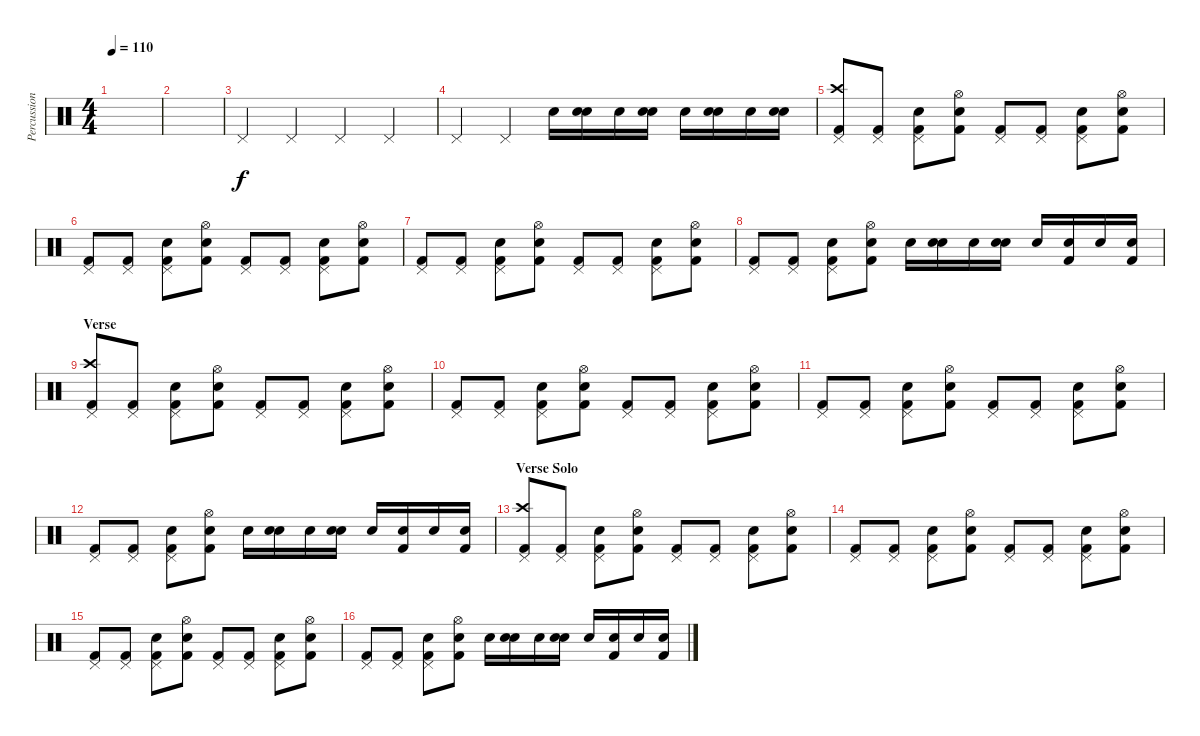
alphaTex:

\track ("Percussion" "Percussion") {instrument percussion}
\staff {score}
\articulation defaults
\ts (4 4)
\tempo 110
\clef neutral
\ks c
|
|
"Pedal Hi-Hat (hit)".4 "Pedal Hi-Hat (hit)".4 "Pedal Hi-Hat (hit)".4 "Pedal Hi-Hat (hit)".4 |
"Pedal Hi-Hat (hit)".4 "Pedal Hi-Hat (hit)".4 "Snare (hit) 2".16 ("Electric Snare (hit)" "Snare (hit) 2").16 "Snare (hit) 2".16 ("Electric Snare (hit)" "Snare (hit) 2").16 "Snare (hit) 2".16 ("Electric Snare (hit)" "Snare (hit) 2").16 "Snare (hit) 2".16 ("Electric Snare (hit)" "Snare (hit) 2").16 |
("Pedal Hi-Hat (hit)" "Crash high (hit)" "Kick (hit) 2").8 ("Pedal Hi-Hat (hit)" "Kick (hit) 2").8 ("Pedal Hi-Hat (hit)" "Snare (hit) 2" "Kick (hit) 2").8 ("Hi-Hat (open)" "Snare (hit) 2" "Kick (hit) 2").8 ("Pedal Hi-Hat (hit)" "Kick (hit) 2").8 ("Pedal Hi-Hat (hit)" "Kick (hit) 2").8 ("Pedal Hi-Hat (hit)" "Snare (hit) 2" "Kick (hit) 2").8 ("Hi-Hat (open)" "Snare (hit) 2" "Kick (hit) 2").8 |
("Pedal Hi-Hat (hit)" "Kick (hit) 2").8 ("Pedal Hi-Hat (hit)" "Kick (hit) 2").8 ("Pedal Hi-Hat (hit)" "Snare (hit) 2" "Kick (hit) 2").8 ("Hi-Hat (open)" "Snare (hit) 2" "Kick (hit) 2").8 ("Pedal Hi-Hat (hit)" "Kick (hit) 2").8 ("Pedal Hi-Hat (hit)" "Kick (hit) 2").8 ("Pedal Hi-Hat (hit)" "Snare (hit) 2" "Kick (hit) 2").8 ("Hi-Hat (open)" "Snare (hit) 2" "Kick (hit) 2").8 |
("Pedal Hi-Hat (hit)" "Kick (hit) 2").8 ("Pedal Hi-Hat (hit)" "Kick (hit) 2").8 ("Pedal Hi-Hat (hit)" "Snare (hit) 2" "Kick (hit) 2").8 ("Hi-Hat (open)" "Snare (hit) 2" "Kick (hit) 2").8 ("Pedal Hi-Hat (hit)" "Kick (hit) 2").8 ("Pedal Hi-Hat (hit)" "Kick (hit) 2").8 ("Pedal Hi-Hat (hit)" "Snare (hit) 2" "Kick (hit) 2").8 ("Hi-Hat (open)" "Snare (hit) 2" "Kick (hit) 2").8 |
("Pedal Hi-Hat (hit)" "Kick (hit) 2").8 ("Pedal Hi-Hat (hit)" "Kick (hit) 2").8 ("Pedal Hi-Hat (hit)" "Snare (hit) 2" "Kick (hit) 2").8 ("Hi-Hat (open)" "Snare (hit) 2" "Kick (hit) 2").8 "Snare (hit) 2".16 ("Electric Snare (hit)" "Snare (hit) 2").16 "Snare (hit) 2".16 ("Electric Snare (hit)" "Snare (hit) 2").16 "Snare (hit) 2".16 ("Kick (hit) 2" "Snare (hit) 2").16 "Snare (hit) 2".16 ("Kick (hit) 2" "Snare (hit) 2").16 |
\section ("" "Verse")
("Pedal Hi-Hat (hit)" "Crash high (hit)" "Kick (hit) 2").8 ("Pedal Hi-Hat (hit)" "Kick (hit) 2").8 ("Pedal Hi-Hat (hit)" "Snare (hit) 2" "Kick (hit) 2").8 ("Hi-Hat (open)" "Snare (hit) 2" "Kick (hit) 2").8 ("Pedal Hi-Hat (hit)" "Kick (hit) 2").8 ("Pedal Hi-Hat (hit)" "Kick (hit) 2").8 ("Pedal Hi-Hat (hit)" "Snare (hit) 2" "Kick (hit) 2").8 ("Hi-Hat (open)" "Snare (hit) 2" "Kick (hit) 2").8 |
("Pedal Hi-Hat (hit)" "Kick (hit) 2").8 ("Pedal Hi-Hat (hit)" "Kick (hit) 2").8 ("Pedal Hi-Hat (hit)" "Snare (hit) 2" "Kick (hit) 2").8 ("Hi-Hat (open)" "Snare (hit) 2" "Kick (hit) 2").8 ("Pedal Hi-Hat (hit)" "Kick (hit) 2").8 ("Pedal Hi-Hat (hit)" "Kick (hit) 2").8 ("Pedal Hi-Hat (hit)" "Snare (hit) 2" "Kick (hit) 2").8 ("Hi-Hat (open)" "Snare (hit) 2" "Kick (hit) 2").8 |
("Pedal Hi-Hat (hit)" "Kick (hit) 2").8 ("Pedal Hi-Hat (hit)" "Kick (hit) 2").8 ("Pedal Hi-Hat (hit)" "Snare (hit) 2" "Kick (hit) 2").8 ("Hi-Hat (open)" "Snare (hit) 2" "Kick (hit) 2").8 ("Pedal Hi-Hat (hit)" "Kick (hit) 2").8 ("Pedal Hi-Hat (hit)" "Kick (hit) 2").8 ("Pedal Hi-Hat (hit)" "Snare (hit) 2" "Kick (hit) 2").8 ("Hi-Hat (open)" "Snare (hit) 2" "Kick (hit) 2").8 |
("Pedal Hi-Hat (hit)" "Kick (hit) 2").8 ("Pedal Hi-Hat (hit)" "Kick (hit) 2").8 ("Pedal Hi-Hat (hit)" "Snare (hit) 2" "Kick (hit) 2").8 ("Hi-Hat (open)" "Snare (hit) 2" "Kick (hit) 2").8 "Snare (hit) 2".16 ("Electric Snare (hit)" "Snare (hit) 2").16 "Snare (hit) 2".16 ("Electric Snare (hit)" "Snare (hit) 2").16 "Snare (hit) 2".16 ("Kick (hit) 2" "Snare (hit) 2").16 "Snare (hit) 2".16 ("Kick (hit) 2" "Snare (hit) 2").16 |
\section ("" "Verse Solo")
("Pedal Hi-Hat (hit)" "Crash high (hit)" "Kick (hit) 2").8 ("Pedal Hi-Hat (hit)" "Kick (hit) 2").8 ("Pedal Hi-Hat (hit)" "Snare (hit) 2" "Kick (hit) 2").8 ("Hi-Hat (open)" "Snare (hit) 2" "Kick (hit) 2").8 ("Pedal Hi-Hat (hit)" "Kick (hit) 2").8 ("Pedal Hi-Hat (hit)" "Kick (hit) 2").8 ("Pedal Hi-Hat (hit)" "Snare (hit) 2" "Kick (hit) 2").8 ("Hi-Hat (open)" "Snare (hit) 2" "Kick (hit) 2").8 |
("Pedal Hi-Hat (hit)" "Kick (hit) 2").8 ("Pedal Hi-Hat (hit)" "Kick (hit) 2").8 ("Pedal Hi-Hat (hit)" "Snare (hit) 2" "Kick (hit) 2").8 ("Hi-Hat (open)" "Snare (hit) 2" "Kick (hit) 2").8 ("Pedal Hi-Hat (hit)" "Kick (hit) 2").8 ("Pedal Hi-Hat (hit)" "Kick (hit) 2").8 ("Pedal Hi-Hat (hit)" "Snare (hit) 2" "Kick (hit) 2").8 ("Hi-Hat (open)" "Snare (hit) 2" "Kick (hit) 2").8 |
("Pedal Hi-Hat (hit)" "Kick (hit) 2").8 ("Pedal Hi-Hat (hit)" "Kick (hit) 2").8 ("Pedal Hi-Hat (hit)" "Snare (hit) 2" "Kick (hit) 2").8 ("Hi-Hat (open)" "Snare (hit) 2" "Kick (hit) 2").8 ("Pedal Hi-Hat (hit)" "Kick (hit) 2").8 ("Pedal Hi-Hat (hit)" "Kick (hit) 2").8 ("Pedal Hi-Hat (hit)" "Snare (hit) 2" "Kick (hit) 2").8 ("Hi-Hat (open)" "Snare (hit) 2" "Kick (hit) 2").8 |
("Pedal Hi-Hat (hit)" "Kick (hit) 2").8 ("Pedal Hi-Hat (hit)" "Kick (hit) 2").8 ("Pedal Hi-Hat (hit)" "Snare (hit) 2" "Kick (hit) 2").8 ("Hi-Hat (open)" "Snare (hit) 2" "Kick (hit) 2").8 "Snare (hit) 2".16 ("Electric Snare (hit)" "Snare (hit) 2").16 "Snare (hit) 2".16 ("Electric Snare (hit)" "Snare (hit) 2").16 "Snare (hit) 2".16 ("Kick (hit) 2" "Snare (hit) 2").16 "Snare (hit) 2".16 ("Kick (hit) 2" "Snare (hit) 2").16
